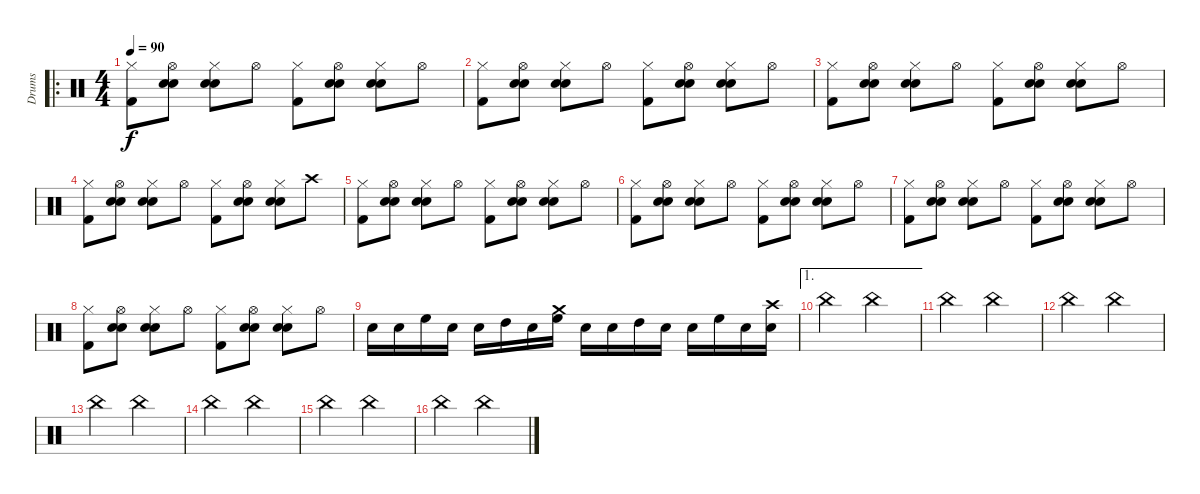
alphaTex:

\track ("Drums" "Drums") {instrument percussion}
\staff {score}
\articulation defaults
\ro
\ts (4 4)
\tempo 90
\clef neutral
\ks c
("Hi-Hat (closed)" "Kick (hit) 2").8{dy f} ("Hi-Hat (open)" "Snare (hit) 2" "Snare (hit) 2").8 ("Hi-Hat (closed)" "Snare (hit) 2" "Snare (hit) 2").8 "Hi-Hat (open)".8 ("Hi-Hat (closed)" "Kick (hit) 2").8 ("Hi-Hat (open)" "Snare (hit) 2" "Snare (hit) 2").8 ("Hi-Hat (closed)" "Snare (hit) 2" "Snare (hit) 2").8 "Hi-Hat (open)".8 |
("Hi-Hat (closed)" "Kick (hit) 2").8 ("Hi-Hat (open)" "Snare (hit) 2" "Snare (hit) 2").8 ("Hi-Hat (closed)" "Snare (hit) 2" "Snare (hit) 2").8 "Hi-Hat (open)".8 ("Hi-Hat (closed)" "Kick (hit) 2").8 ("Hi-Hat (open)" "Snare (hit) 2" "Snare (hit) 2").8 ("Hi-Hat (closed)" "Snare (hit) 2" "Snare (hit) 2").8 "Hi-Hat (open)".8 |
("Hi-Hat (closed)" "Kick (hit) 2").8 ("Hi-Hat (open)" "Snare (hit) 2" "Snare (hit) 2").8 ("Hi-Hat (closed)" "Snare (hit) 2" "Snare (hit) 2").8 "Hi-Hat (open)".8 ("Hi-Hat (closed)" "Kick (hit) 2").8 ("Hi-Hat (open)" "Snare (hit) 2" "Snare (hit) 2").8 ("Hi-Hat (closed)" "Snare (hit) 2" "Snare (hit) 2").8 "Hi-Hat (open)".8 |
("Hi-Hat (closed)" "Kick (hit) 2").8 ("Hi-Hat (open)" "Snare (hit) 2" "Snare (hit) 2").8 ("Hi-Hat (closed)" "Snare (hit) 2" "Snare (hit) 2").8 "Hi-Hat (open)".8 ("Hi-Hat (closed)" "Kick (hit) 2").8 ("Hi-Hat (open)" "Snare (hit) 2" "Snare (hit) 2").8 ("Hi-Hat (closed)" "Snare (hit) 2" "Snare (hit) 2").8 "Crash high (hit)".8 |
("Hi-Hat (closed)" "Kick (hit) 2").8 ("Hi-Hat (open)" "Snare (hit) 2" "Snare (hit) 2").8 ("Hi-Hat (closed)" "Snare (hit) 2" "Snare (hit) 2").8 "Hi-Hat (open)".8 ("Hi-Hat (closed)" "Kick (hit) 2").8 ("Hi-Hat (open)" "Snare (hit) 2" "Snare (hit) 2").8 ("Hi-Hat (closed)" "Snare (hit) 2" "Snare (hit) 2").8 "Hi-Hat (open)".8 |
("Hi-Hat (closed)" "Kick (hit) 2").8 ("Hi-Hat (open)" "Snare (hit) 2" "Snare (hit) 2").8 ("Hi-Hat (closed)" "Snare (hit) 2" "Snare (hit) 2").8 "Hi-Hat (open)".8 ("Hi-Hat (closed)" "Kick (hit) 2").8 ("Hi-Hat (open)" "Snare (hit) 2" "Snare (hit) 2").8 ("Hi-Hat (closed)" "Snare (hit) 2" "Snare (hit) 2").8 "Hi-Hat (open)".8 |
("Hi-Hat (closed)" "Kick (hit) 2").8 ("Hi-Hat (open)" "Snare (hit) 2" "Snare (hit) 2").8 ("Hi-Hat (closed)" "Snare (hit) 2" "Snare (hit) 2").8 "Hi-Hat (open)".8 ("Hi-Hat (closed)" "Kick (hit) 2").8 ("Hi-Hat (open)" "Snare (hit) 2" "Snare (hit) 2").8 ("Hi-Hat (closed)" "Snare (hit) 2" "Snare (hit) 2").8 "Hi-Hat (open)".8 |
("Hi-Hat (closed)" "Kick (hit) 2").8 ("Hi-Hat (open)" "Snare (hit) 2" "Snare (hit) 2").8 ("Hi-Hat (closed)" "Snare (hit) 2" "Snare (hit) 2").8 "Hi-Hat (open)".8 ("Hi-Hat (closed)" "Kick (hit) 2").8 ("Hi-Hat (open)" "Snare (hit) 2" "Snare (hit) 2").8 ("Hi-Hat (closed)" "Snare (hit) 2" "Snare (hit) 2").8 "Hi-Hat (open)".8 |
"Snare (hit) 2".16 "Snare (hit) 2".16 "High Floor Tom (hit)".16 "Snare (hit) 2".16 "Snare (hit) 2".16 "High Tom (hit)".16 "Snare (hit) 2".16 ("Crash medium (hit)" "High Floor Tom (hit)").16 "Snare (hit) 2".16 "Snare (hit) 2".16 "High Tom (hit)".16 "Snare (hit) 2".16 "Snare (hit) 2".16 "High Floor Tom (hit)".16 "Snare (hit) 2".16 ("Crash high (hit)" "Snare (hit) 2").16 |
\ae 1 "China (hit)".2 "China (hit)".2
|
"China (hit)".2 "China (hit)".2 |
"China (hit)".2 "China (hit)".2 |
"China (hit)".2 "China (hit)".2 |
"China (hit)".2 "China (hit)".2 |
"China (hit)".2 "China (hit)".2 |
"China (hit)".2 "China (hit)".2
